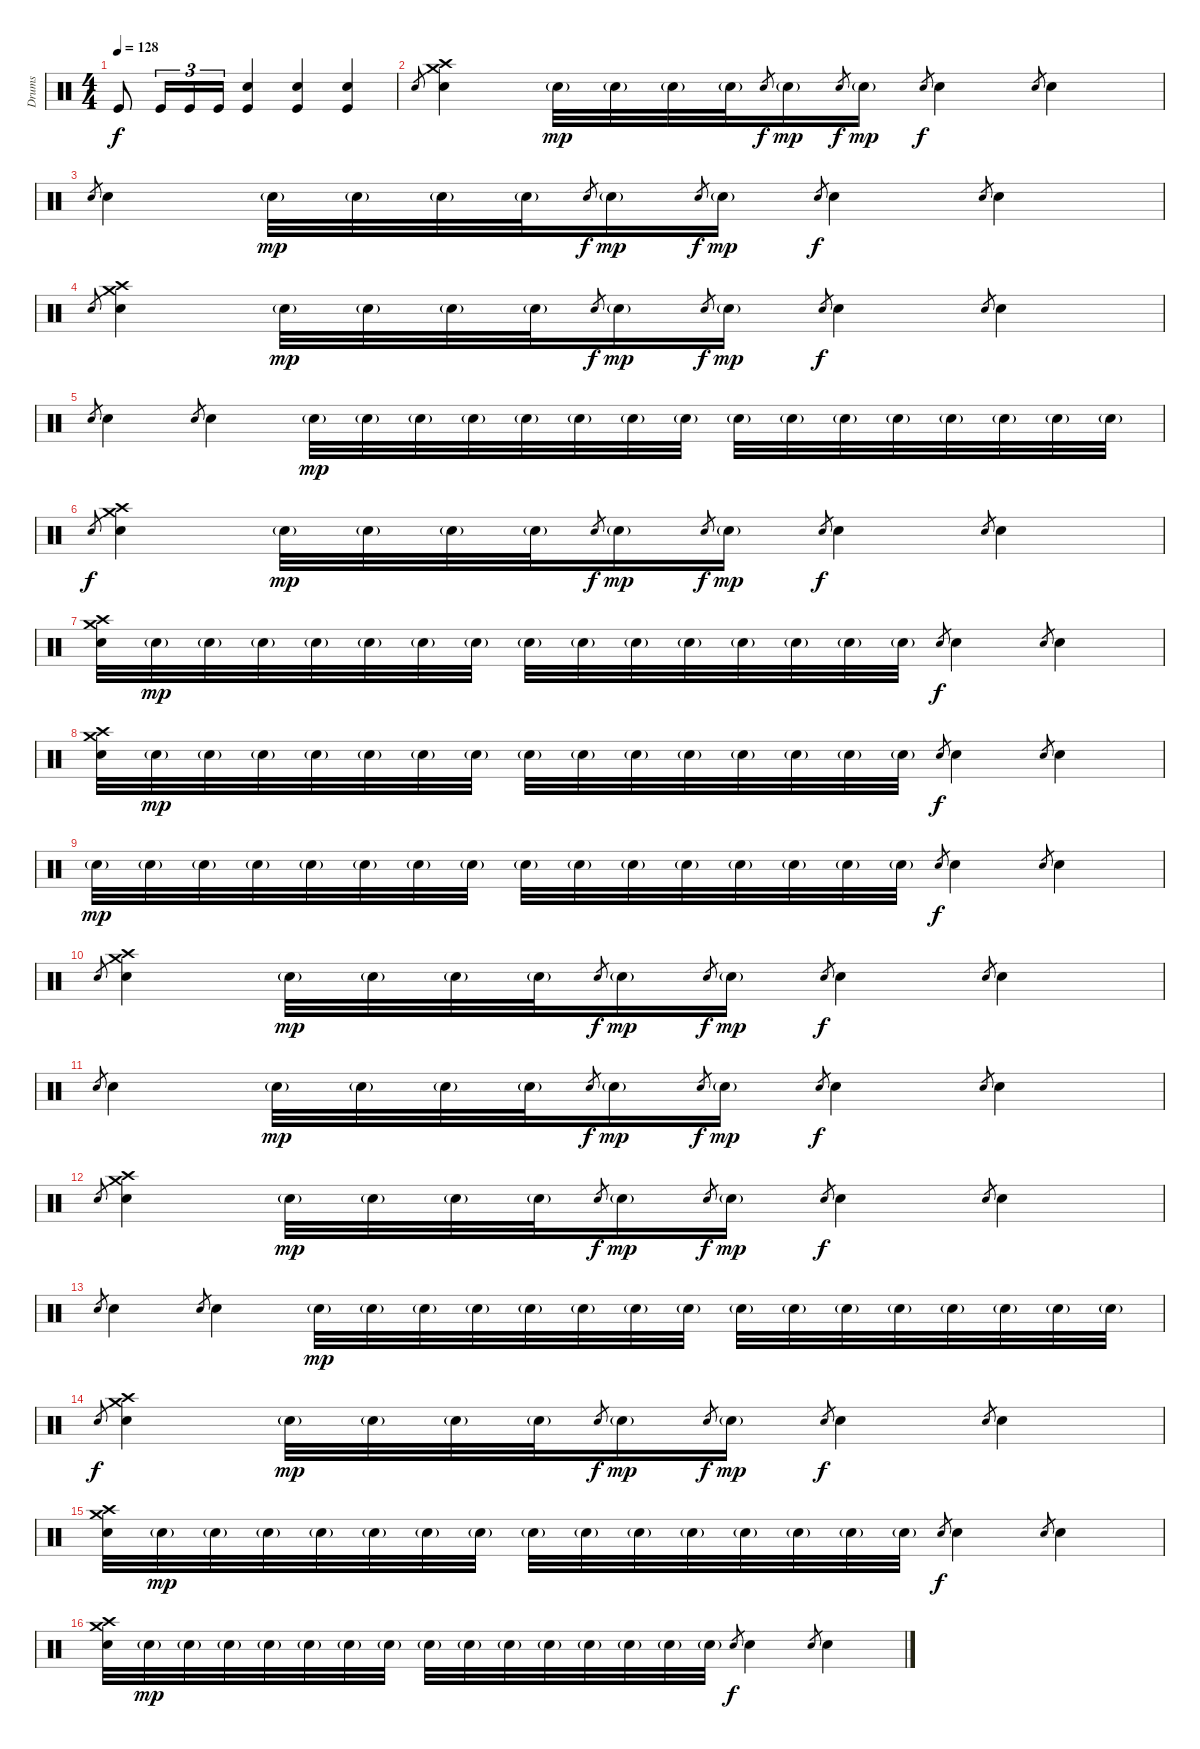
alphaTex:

\track ("Drums" "Drums") {instrument percussion}
\staff {score}
\articulation defaults
\ts (4 4)
\tempo 128
\clef neutral
\ks c "Kick (hit)".8{dy f} "Kick (hit)".16{tu (3 2)} "Kick (hit)".16{tu (3 2)} "Kick (hit)".16{tu (3 2)}
("Snare (hit) 2" "Kick (hit)").4 ("Snare (hit) 2" "Kick (hit)").4 ("Snare (hit) 2" "Kick (hit)").4 |
"Snare (hit) 2".8{gr} ("Crash medium (hit)" "Crash high (hit)" "Snare (hit) 2").4{volume 13} "Snare (hit) 2"{g}.32{dy mp} "Snare (hit) 2"{g}.32 "Snare (hit) 2"{g}.32 "Snare (hit) 2"{g}.32 "Snare (hit) 2".8{gr dy f} "Snare (hit) 2"{g}.16{dy mp} "Snare (hit) 2".8{gr dy f} "Snare (hit) 2"{g}.16{dy mp} "Snare (hit) 2".8{gr dy f} "Snare (hit) 2".4 "Snare (hit) 2".8{gr} "Snare (hit) 2".4 |
"Snare (hit) 2".8{gr} "Snare (hit) 2".4 "Snare (hit) 2"{g}.32{dy mp} "Snare (hit) 2"{g}.32 "Snare (hit) 2"{g}.32 "Snare (hit) 2"{g}.32 "Snare (hit) 2".8{gr dy f} "Snare (hit) 2"{g}.16{dy mp} "Snare (hit) 2".8{gr dy f} "Snare (hit) 2"{g}.16{dy mp} "Snare (hit) 2".8{gr dy f} "Snare (hit) 2".4 "Snare (hit) 2".8{gr} "Snare (hit) 2".4 |
"Snare (hit) 2".8{gr} ("Crash medium (hit)" "Crash high (hit)" "Snare (hit) 2").4 "Snare (hit) 2"{g}.32{dy mp} "Snare (hit) 2"{g}.32 "Snare (hit) 2"{g}.32 "Snare (hit) 2"{g}.32 "Snare (hit) 2".8{gr dy f} "Snare (hit) 2"{g}.16{dy mp} "Snare (hit) 2".8{gr dy f} "Snare (hit) 2"{g}.16{dy mp} "Snare (hit) 2".8{gr dy f} "Snare (hit) 2".4 "Snare (hit) 2".8{gr} "Snare (hit) 2".4 |
"Snare (hit) 2".8{gr} "Snare (hit) 2".4 "Snare (hit) 2".8{gr} "Snare (hit) 2".4 "Snare (hit) 2"{g}.32{dy mp} "Snare (hit) 2"{g}.32 "Snare (hit) 2"{g}.32 "Snare (hit) 2"{g}.32 "Snare (hit) 2"{g}.32 "Snare (hit) 2"{g}.32 "Snare (hit) 2"{g}.32 "Snare (hit) 2"{g}.32 "Snare (hit) 2"{g}.32 "Snare (hit) 2"{g}.32 "Snare (hit) 2"{g}.32 "Snare (hit) 2"{g}.32 "Snare (hit) 2"{g}.32 "Snare (hit) 2"{g}.32 "Snare (hit) 2"{g}.32 "Snare (hit) 2"{g}.32 |
"Snare (hit) 2".8{gr dy f} ("Crash medium (hit)" "Crash high (hit)" "Snare (hit) 2").4 "Snare (hit) 2"{g}.32{dy mp} "Snare (hit) 2"{g}.32 "Snare (hit) 2"{g}.32 "Snare (hit) 2"{g}.32 "Snare (hit) 2".8{gr dy f} "Snare (hit) 2"{g}.16{dy mp} "Snare (hit) 2".8{gr dy f} "Snare (hit) 2"{g}.16{dy mp} "Snare (hit) 2".8{gr dy f} "Snare (hit) 2".4 "Snare (hit) 2".8{gr} "Snare (hit) 2".4 |
("Crash medium (hit)" "Crash high (hit)" "Snare (hit) 2").32 "Snare (hit) 2"{g}.32{dy mp} "Snare (hit) 2"{g}.32 "Snare (hit) 2"{g}.32 "Snare (hit) 2"{g}.32 "Snare (hit) 2"{g}.32 "Snare (hit) 2"{g}.32 "Snare (hit) 2"{g}.32 "Snare (hit) 2"{g}.32 "Snare (hit) 2"{g}.32 "Snare (hit) 2"{g}.32 "Snare (hit) 2"{g}.32 "Snare (hit) 2"{g}.32 "Snare (hit) 2"{g}.32 "Snare (hit) 2"{g}.32 "Snare (hit) 2"{g}.32 "Snare (hit) 2".8{gr dy f} "Snare (hit) 2".4 "Snare (hit) 2".8{gr} "Snare (hit) 2".4 |
("Crash medium (hit)" "Crash high (hit)" "Snare (hit) 2").32 "Snare (hit) 2"{g}.32{dy mp} "Snare (hit) 2"{g}.32 "Snare (hit) 2"{g}.32 "Snare (hit) 2"{g}.32 "Snare (hit) 2"{g}.32 "Snare (hit) 2"{g}.32 "Snare (hit) 2"{g}.32 "Snare (hit) 2"{g}.32 "Snare (hit) 2"{g}.32 "Snare (hit) 2"{g}.32 "Snare (hit) 2"{g}.32 "Snare (hit) 2"{g}.32 "Snare (hit) 2"{g}.32 "Snare (hit) 2"{g}.32 "Snare (hit) 2"{g}.32 "Snare (hit) 2".8{gr dy f} "Snare (hit) 2".4 "Snare (hit) 2".8{gr} "Snare (hit) 2".4 |
"Snare (hit) 2"{g}.32{dy mp} "Snare (hit) 2"{g}.32 "Snare (hit) 2"{g}.32 "Snare (hit) 2"{g}.32 "Snare (hit) 2"{g}.32 "Snare (hit) 2"{g}.32 "Snare (hit) 2"{g}.32 "Snare (hit) 2"{g}.32 "Snare (hit) 2"{g}.32 "Snare (hit) 2"{g}.32 "Snare (hit) 2"{g}.32 "Snare (hit) 2"{g}.32 "Snare (hit) 2"{g}.32 "Snare (hit) 2"{g}.32 "Snare (hit) 2"{g}.32 "Snare (hit) 2"{g}.32 "Snare (hit) 2".8{gr dy f} "Snare (hit) 2".4 "Snare (hit) 2".8{gr} "Snare (hit) 2".4 |
"Snare (hit) 2".8{gr} ("Crash medium (hit)" "Crash high (hit)" "Snare (hit) 2").4 "Snare (hit) 2"{g}.32{dy mp} "Snare (hit) 2"{g}.32 "Snare (hit) 2"{g}.32 "Snare (hit) 2"{g}.32 "Snare (hit) 2".8{gr dy f} "Snare (hit) 2"{g}.16{dy mp} "Snare (hit) 2".8{gr dy f} "Snare (hit) 2"{g}.16{dy mp} "Snare (hit) 2".8{gr dy f} "Snare (hit) 2".4 "Snare (hit) 2".8{gr} "Snare (hit) 2".4 |
"Snare (hit) 2".8{gr} "Snare (hit) 2".4 "Snare (hit) 2"{g}.32{dy mp} "Snare (hit) 2"{g}.32 "Snare (hit) 2"{g}.32 "Snare (hit) 2"{g}.32 "Snare (hit) 2".8{gr dy f} "Snare (hit) 2"{g}.16{dy mp} "Snare (hit) 2".8{gr dy f} "Snare (hit) 2"{g}.16{dy mp} "Snare (hit) 2".8{gr dy f} "Snare (hit) 2".4 "Snare (hit) 2".8{gr} "Snare (hit) 2".4 |
"Snare (hit) 2".8{gr} ("Crash medium (hit)" "Crash high (hit)" "Snare (hit) 2").4 "Snare (hit) 2"{g}.32{dy mp} "Snare (hit) 2"{g}.32 "Snare (hit) 2"{g}.32 "Snare (hit) 2"{g}.32 "Snare (hit) 2".8{gr dy f} "Snare (hit) 2"{g}.16{dy mp} "Snare (hit) 2".8{gr dy f} "Snare (hit) 2"{g}.16{dy mp} "Snare (hit) 2".8{gr dy f} "Snare (hit) 2".4 "Snare (hit) 2".8{gr} "Snare (hit) 2".4 |
"Snare (hit) 2".8{gr} "Snare (hit) 2".4 "Snare (hit) 2".8{gr} "Snare (hit) 2".4 "Snare (hit) 2"{g}.32{dy mp} "Snare (hit) 2"{g}.32 "Snare (hit) 2"{g}.32 "Snare (hit) 2"{g}.32 "Snare (hit) 2"{g}.32 "Snare (hit) 2"{g}.32 "Snare (hit) 2"{g}.32 "Snare (hit) 2"{g}.32 "Snare (hit) 2"{g}.32 "Snare (hit) 2"{g}.32 "Snare (hit) 2"{g}.32 "Snare (hit) 2"{g}.32 "Snare (hit) 2"{g}.32 "Snare (hit) 2"{g}.32 "Snare (hit) 2"{g}.32 "Snare (hit) 2"{g}.32 |
"Snare (hit) 2".8{gr dy f} ("Crash medium (hit)" "Crash high (hit)" "Snare (hit) 2").4 "Snare (hit) 2"{g}.32{dy mp} "Snare (hit) 2"{g}.32 "Snare (hit) 2"{g}.32 "Snare (hit) 2"{g}.32 "Snare (hit) 2".8{gr dy f} "Snare (hit) 2"{g}.16{dy mp} "Snare (hit) 2".8{gr dy f} "Snare (hit) 2"{g}.16{dy mp} "Snare (hit) 2".8{gr dy f} "Snare (hit) 2".4 "Snare (hit) 2".8{gr} "Snare (hit) 2".4 |
("Crash medium (hit)" "Crash high (hit)" "Snare (hit) 2").32 "Snare (hit) 2"{g}.32{dy mp} "Snare (hit) 2"{g}.32 "Snare (hit) 2"{g}.32 "Snare (hit) 2"{g}.32 "Snare (hit) 2"{g}.32 "Snare (hit) 2"{g}.32 "Snare (hit) 2"{g}.32 "Snare (hit) 2"{g}.32 "Snare (hit) 2"{g}.32 "Snare (hit) 2"{g}.32 "Snare (hit) 2"{g}.32 "Snare (hit) 2"{g}.32 "Snare (hit) 2"{g}.32 "Snare (hit) 2"{g}.32 "Snare (hit) 2"{g}.32 "Snare (hit) 2".8{gr dy f} "Snare (hit) 2".4 "Snare (hit) 2".8{gr} "Snare (hit) 2".4 |
("Crash medium (hit)" "Crash high (hit)" "Snare (hit) 2").32 "Snare (hit) 2"{g}.32{dy mp} "Snare (hit) 2"{g}.32 "Snare (hit) 2"{g}.32 "Snare (hit) 2"{g}.32 "Snare (hit) 2"{g}.32 "Snare (hit) 2"{g}.32 "Snare (hit) 2"{g}.32 "Snare (hit) 2"{g}.32 "Snare (hit) 2"{g}.32 "Snare (hit) 2"{g}.32 "Snare (hit) 2"{g}.32 "Snare (hit) 2"{g}.32 "Snare (hit) 2"{g}.32 "Snare (hit) 2"{g}.32 "Snare (hit) 2"{g}.32 "Snare (hit) 2".8{gr dy f} "Snare (hit) 2".4 "Snare (hit) 2".8{gr} "Snare (hit) 2".4
